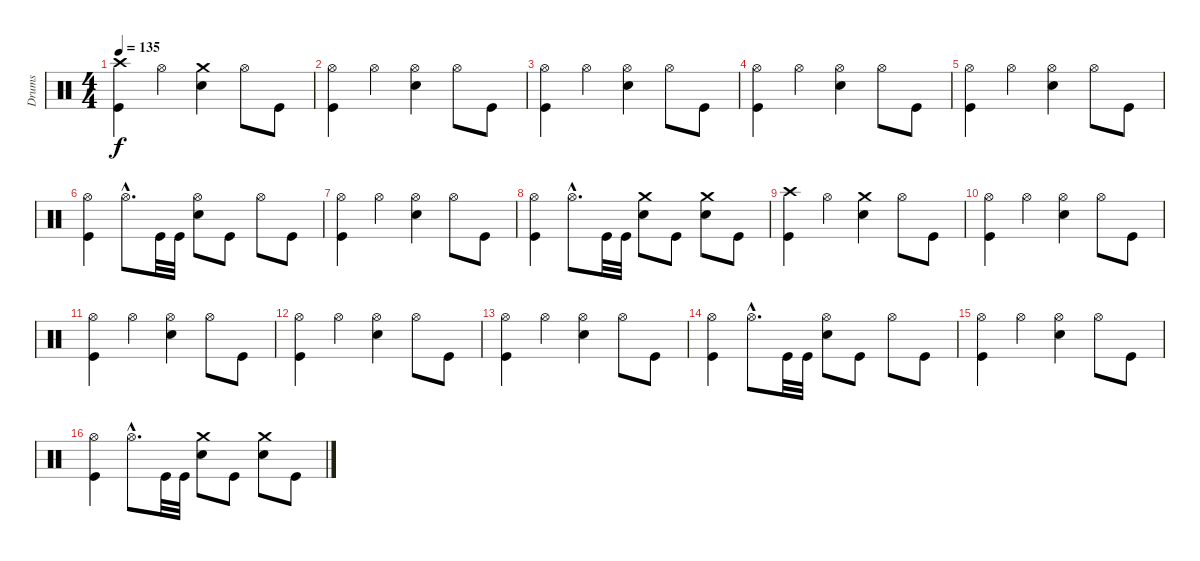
\track ("Drums" "Drums") {instrument percussion}
\staff {score}
\articulation defaults
\ts (4 4)
\tempo 135
\clef neutral
\ks c
("Kick (hit)" "Crash high (hit)").4{dy f} "Hi-Hat (open)".4 ("Crash medium (hit)" "Snare (hit) 2").4 "Hi-Hat (open)".8 "Kick (hit)".8 |
("Kick (hit)" "Hi-Hat (open)").4 "Hi-Hat (open)".4 ("Hi-Hat (open)" "Snare (hit) 2").4 "Hi-Hat (open)".8 "Kick (hit)".8 |
("Kick (hit)" "Hi-Hat (open)").4 "Hi-Hat (open)".4 ("Hi-Hat (open)" "Snare (hit) 2").4 "Hi-Hat (open)".8 "Kick (hit)".8 |
("Kick (hit)" "Hi-Hat (open)").4 "Hi-Hat (open)".4 ("Hi-Hat (open)" "Snare (hit) 2").4 "Hi-Hat (open)".8 "Kick (hit)".8 |
("Kick (hit)" "Hi-Hat (open)").4 "Hi-Hat (open)".4 ("Hi-Hat (open)" "Snare (hit) 2").4 "Hi-Hat (open)".8 "Kick (hit)".8 |
("Kick (hit)" "Hi-Hat (open)").4 "Hi-Hat (open)"{hac}.8{d} "Kick (hit)".32 "Kick (hit)".32 ("Hi-Hat (open)" "Snare (hit) 2").8 "Kick (hit)".8 "Hi-Hat (open)".8 "Kick (hit)".8 |
("Kick (hit)" "Hi-Hat (open)").4 "Hi-Hat (open)".4 ("Hi-Hat (open)" "Snare (hit) 2").4 "Hi-Hat (open)".8 "Kick (hit)".8 |
("Kick (hit)" "Hi-Hat (open)").4 "Hi-Hat (open)"{hac}.8{d} "Kick (hit)".32 "Kick (hit)".32 ("Crash medium (hit)" "Snare (hit) 2").8 "Kick (hit)".8 ("Crash medium (hit)" "Snare (hit) 2").8 "Kick (hit)".8 |
("Kick (hit)" "Crash high (hit)").4 "Hi-Hat (open)".4 ("Crash medium (hit)" "Snare (hit) 2").4 "Hi-Hat (open)".8 "Kick (hit)".8 |
("Kick (hit)" "Hi-Hat (open)").4 "Hi-Hat (open)".4 ("Hi-Hat (open)" "Snare (hit) 2").4 "Hi-Hat (open)".8 "Kick (hit)".8 |
("Kick (hit)" "Hi-Hat (open)").4 "Hi-Hat (open)".4 ("Hi-Hat (open)" "Snare (hit) 2").4 "Hi-Hat (open)".8 "Kick (hit)".8 |
("Kick (hit)" "Hi-Hat (open)").4 "Hi-Hat (open)".4 ("Hi-Hat (open)" "Snare (hit) 2").4 "Hi-Hat (open)".8 "Kick (hit)".8 |
("Kick (hit)" "Hi-Hat (open)").4 "Hi-Hat (open)".4 ("Hi-Hat (open)" "Snare (hit) 2").4 "Hi-Hat (open)".8 "Kick (hit)".8 |
("Kick (hit)" "Hi-Hat (open)").4 "Hi-Hat (open)"{hac}.8{d} "Kick (hit)".32 "Kick (hit)".32 ("Hi-Hat (open)" "Snare (hit) 2").8 "Kick (hit)".8 "Hi-Hat (open)".8 "Kick (hit)".8 |
("Kick (hit)" "Hi-Hat (open)").4 "Hi-Hat (open)".4 ("Hi-Hat (open)" "Snare (hit) 2").4 "Hi-Hat (open)".8 "Kick (hit)".8 |
("Kick (hit)" "Hi-Hat (open)").4 "Hi-Hat (open)"{hac}.8{d} "Kick (hit)".32 "Kick (hit)".32 ("Crash medium (hit)" "Snare (hit) 2").8 "Kick (hit)".8 ("Crash medium (hit)" "Snare (hit) 2").8 "Kick (hit)".8
